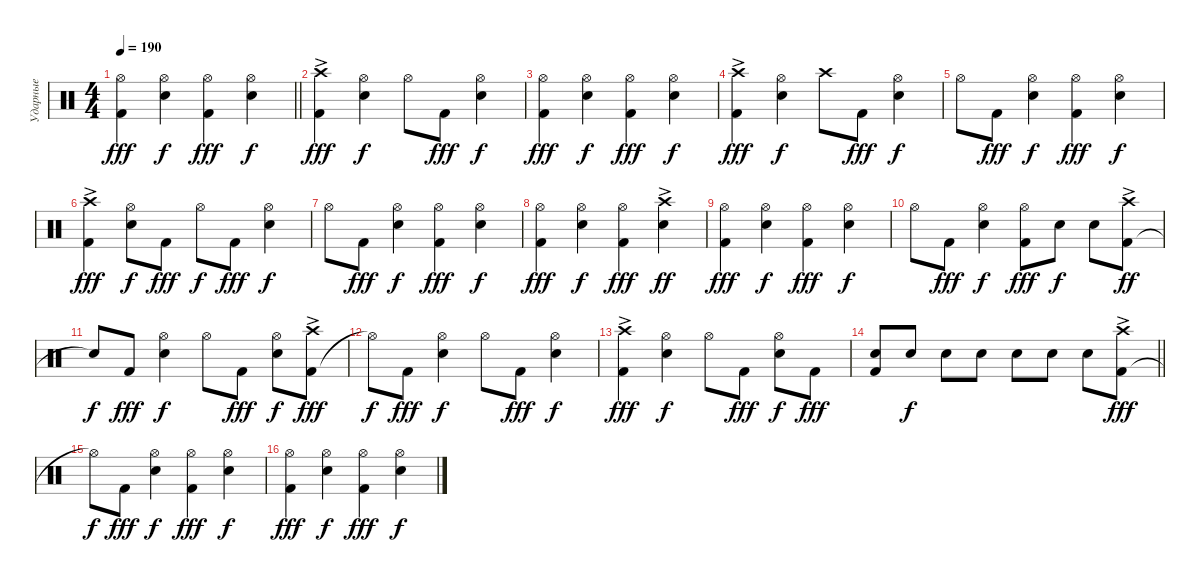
\track ("Ударные" "Ударные") {instrument percussion}
\staff {score}
\articulation defaults
\ts (4 4)
\tempo 190
\clef neutral
\barLineRight lightlight
\ks c
("Kick (hit) 2" "Hi-Hat (open)").4{dy fff} ("Snare (hit) 2" "Hi-Hat (open)").4{dy f} ("Kick (hit) 2" "Hi-Hat (open)").4{dy fff} ("Snare (hit) 2" "Hi-Hat (open)").4{dy f} |
("Kick (hit) 2" "Crash high (hit)"{ac}).4{dy fff} ("Snare (hit) 2" "Hi-Hat (open)").4{dy f} "Hi-Hat (open)".8 "Kick (hit) 2".8{dy fff} ("Snare (hit) 2" "Hi-Hat (open)").4{dy f} |
("Kick (hit) 2" "Hi-Hat (open)").4{dy fff} ("Snare (hit) 2" "Hi-Hat (open)").4{dy f} ("Kick (hit) 2" "Hi-Hat (open)").4{dy fff} ("Snare (hit) 2" "Hi-Hat (open)").4{dy f} |
("Kick (hit) 2" "Crash high (hit)"{ac}).4{dy fff} ("Snare (hit) 2" "Hi-Hat (open)").4{dy f} "Crash high (hit)".8 "Kick (hit) 2".8{dy fff} ("Snare (hit) 2" "Hi-Hat (open)").4{dy f} |
"Hi-Hat (open)".8 "Kick (hit) 2".8{dy fff} ("Snare (hit) 2" "Hi-Hat (open)").4{dy f} ("Kick (hit) 2" "Hi-Hat (open)").4{dy fff} ("Snare (hit) 2" "Hi-Hat (open)").4{dy f} |
("Kick (hit) 2" "Crash high (hit)"{ac}).4{dy fff} ("Snare (hit) 2" "Hi-Hat (open)").8{dy f} "Kick (hit) 2".8{dy fff} "Hi-Hat (open)".8{dy f} "Kick (hit) 2".8{dy fff} ("Snare (hit) 2" "Hi-Hat (open)").4{dy f} |
"Hi-Hat (open)".8 "Kick (hit) 2".8{dy fff} ("Snare (hit) 2" "Hi-Hat (open)").4{dy f} ("Kick (hit) 2" "Hi-Hat (open)").4{dy fff} ("Snare (hit) 2" "Hi-Hat (open)").4{dy f} |
("Kick (hit) 2" "Hi-Hat (open)").4{dy fff} ("Snare (hit) 2" "Hi-Hat (open)").4{dy f} ("Kick (hit) 2" "Hi-Hat (open)").4{dy fff} ("Snare (hit) 2" "Crash high (hit)"{ac}).4{dy ff} |
("Kick (hit) 2" "Hi-Hat (open)").4{dy fff} ("Snare (hit) 2" "Hi-Hat (open)").4{dy f} ("Kick (hit) 2" "Hi-Hat (open)").4{dy fff} ("Snare (hit) 2" "Hi-Hat (open)").4{dy f} |
"Hi-Hat (open)".8 "Kick (hit) 2".8{dy fff} ("Snare (hit) 2" "Hi-Hat (open)").4{dy f} ("Kick (hit) 2" "Hi-Hat (open)").8{dy fff} "Snare (hit) 2".8{dy f} "Snare (hit) 2".8 ("Kick (hit) 2" "Crash high (hit)"{ac}).8{dy ff} |
"Snare (hit)"{t}.8{dy f} "Kick (hit) 2".8{dy fff} ("Snare (hit) 2" "Hi-Hat (open)").4{dy f} "Hi-Hat (open)".8 "Kick (hit) 2".8{dy fff} ("Snare (hit) 2" "Hi-Hat (open)").8{dy f} ("Kick (hit) 2" "Crash high (hit)"{ac}).8{dy fff} |
"Hi-Hat (open)"{t}.8{dy f} "Kick (hit) 2".8{dy fff} ("Snare (hit) 2" "Hi-Hat (open)").4{dy f} "Hi-Hat (open)".8 "Kick (hit) 2".8{dy fff} ("Snare (hit) 2" "Hi-Hat (open)").4{dy f} |
("Kick (hit) 2" "Crash high (hit)"{ac}).4{dy fff} ("Snare (hit) 2" "Hi-Hat (open)").4{dy f} "Hi-Hat (open)".8 "Kick (hit) 2".8{dy fff} ("Snare (hit) 2" "Hi-Hat (open)").8{dy f} "Kick (hit) 2".8{dy fff} |
\barLineRight lightlight
("Kick (hit) 2" "Snare (hit) 2").8 "Snare (hit) 2".8{dy f} "Snare (hit) 2".8 "Snare (hit) 2".8 "Snare (hit) 2".8 "Snare (hit) 2".8 "Snare (hit) 2".8 ("Kick (hit) 2" "Crash high (hit)"{ac}).8{dy fff} |
"Hi-Hat (open)"{t}.8{dy f} "Kick (hit) 2".8{dy fff} ("Snare (hit) 2" "Hi-Hat (open)").4{dy f} ("Kick (hit) 2" "Hi-Hat (open)").4{dy fff} ("Snare (hit) 2" "Hi-Hat (open)").4{dy f} |
("Kick (hit) 2" "Hi-Hat (open)").4{dy fff} ("Snare (hit) 2" "Hi-Hat (open)").4{dy f} ("Kick (hit) 2" "Hi-Hat (open)").4{dy fff} ("Snare (hit) 2" "Hi-Hat (open)").4{dy f}
